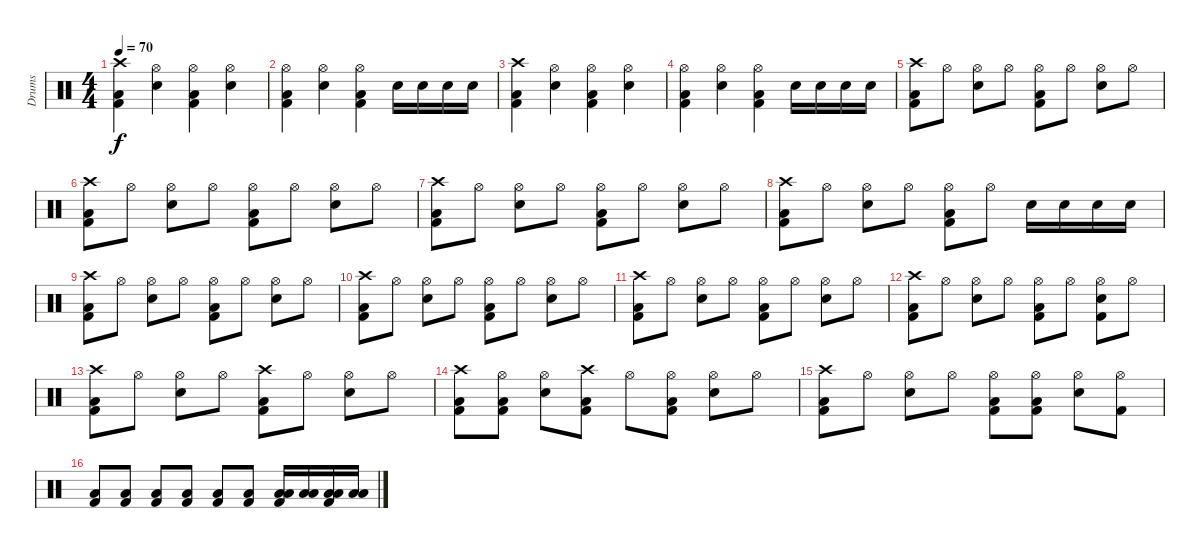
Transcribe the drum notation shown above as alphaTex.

\track ("Drums" "Drums") {instrument percussion}
\staff {score}
\articulation defaults
\ts (4 4)
\tempo 70
\clef neutral
\ks c
("Crash high (hit)" "Low Floor Tom (hit)" "Kick (hit) 2").4{dy f} ("Hi-Hat (open)" "Snare (hit) 2").4 ("Hi-Hat (open)" "Low Floor Tom (hit)" "Kick (hit) 2").4 ("Hi-Hat (open)" "Snare (hit) 2").4 |
("Hi-Hat (open)" "Low Floor Tom (hit)" "Kick (hit) 2").4 ("Hi-Hat (open)" "Snare (hit) 2").4 ("Hi-Hat (open)" "Low Floor Tom (hit)" "Kick (hit) 2").4 "Snare (hit) 2".16 "Snare (hit) 2".16 "Snare (hit) 2".16 "Snare (hit) 2".16 |
("Crash high (hit)" "Low Floor Tom (hit)" "Kick (hit) 2").4 ("Hi-Hat (open)" "Snare (hit) 2").4 ("Hi-Hat (open)" "Low Floor Tom (hit)" "Kick (hit) 2").4 ("Hi-Hat (open)" "Snare (hit) 2").4 |
("Hi-Hat (open)" "Low Floor Tom (hit)" "Kick (hit) 2").4 ("Hi-Hat (open)" "Snare (hit) 2").4 ("Hi-Hat (open)" "Low Floor Tom (hit)" "Kick (hit) 2").4 "Snare (hit) 2".16 "Snare (hit) 2".16 "Snare (hit) 2".16 "Snare (hit) 2".16 |
("Crash high (hit)" "Low Floor Tom (hit)" "Kick (hit) 2").8 "Hi-Hat (open)".8 ("Hi-Hat (open)" "Snare (hit) 2").8 "Hi-Hat (open)".8 ("Hi-Hat (open)" "Low Floor Tom (hit)" "Kick (hit) 2").8 "Hi-Hat (open)".8 ("Hi-Hat (open)" "Snare (hit) 2").8 "Hi-Hat (open)".8 |
("Crash high (hit)" "Low Floor Tom (hit)" "Kick (hit) 2").8 "Hi-Hat (open)".8 ("Hi-Hat (open)" "Snare (hit) 2").8 "Hi-Hat (open)".8 ("Hi-Hat (open)" "Low Floor Tom (hit)" "Kick (hit) 2").8 "Hi-Hat (open)".8 ("Hi-Hat (open)" "Snare (hit) 2").8 "Hi-Hat (open)".8 |
("Crash high (hit)" "Low Floor Tom (hit)" "Kick (hit) 2").8 "Hi-Hat (open)".8 ("Hi-Hat (open)" "Snare (hit) 2").8 "Hi-Hat (open)".8 ("Hi-Hat (open)" "Low Floor Tom (hit)" "Kick (hit) 2").8 "Hi-Hat (open)".8 ("Hi-Hat (open)" "Snare (hit) 2").8 "Hi-Hat (open)".8 |
("Crash high (hit)" "Low Floor Tom (hit)" "Kick (hit) 2").8 "Hi-Hat (open)".8 ("Hi-Hat (open)" "Snare (hit) 2").8 "Hi-Hat (open)".8 ("Hi-Hat (open)" "Low Floor Tom (hit)" "Kick (hit) 2").8 "Hi-Hat (open)".8 "Snare (hit) 2".16 "Snare (hit) 2".16 "Snare (hit) 2".16 "Snare (hit) 2".16 |
("Crash high (hit)" "Low Floor Tom (hit)" "Kick (hit) 2").8 "Hi-Hat (open)".8 ("Hi-Hat (open)" "Snare (hit) 2").8 "Hi-Hat (open)".8 ("Hi-Hat (open)" "Low Floor Tom (hit)" "Kick (hit) 2").8 "Hi-Hat (open)".8 ("Hi-Hat (open)" "Snare (hit) 2").8 "Hi-Hat (open)".8 |
("Crash high (hit)" "Low Floor Tom (hit)" "Kick (hit) 2").8 "Hi-Hat (open)".8 ("Hi-Hat (open)" "Snare (hit) 2").8 "Hi-Hat (open)".8 ("Hi-Hat (open)" "Low Floor Tom (hit)" "Kick (hit) 2").8 "Hi-Hat (open)".8 ("Hi-Hat (open)" "Snare (hit) 2").8 "Hi-Hat (open)".8 |
("Crash high (hit)" "Low Floor Tom (hit)" "Kick (hit) 2").8 "Hi-Hat (open)".8 ("Hi-Hat (open)" "Snare (hit) 2").8 "Hi-Hat (open)".8 ("Hi-Hat (open)" "Low Floor Tom (hit)" "Kick (hit) 2").8 "Hi-Hat (open)".8 ("Hi-Hat (open)" "Snare (hit) 2").8 "Hi-Hat (open)".8 |
("Crash high (hit)" "Low Floor Tom (hit)" "Kick (hit) 2").8 "Hi-Hat (open)".8 ("Hi-Hat (open)" "Snare (hit) 2").8 "Hi-Hat (open)".8 ("Hi-Hat (open)" "Low Floor Tom (hit)" "Kick (hit) 2").8 "Hi-Hat (open)".8 ("Hi-Hat (open)" "Snare (hit) 2" "Kick (hit) 2").8 "Hi-Hat (open)".8 |
("Crash high (hit)" "Low Floor Tom (hit)" "Kick (hit) 2").8 "Hi-Hat (open)".8 ("Hi-Hat (open)" "Snare (hit) 2").8 "Hi-Hat (open)".8 ("Crash high (hit)" "Low Floor Tom (hit)" "Kick (hit) 2").8 "Hi-Hat (open)".8 ("Hi-Hat (open)" "Snare (hit) 2").8 "Hi-Hat (open)".8 |
("Crash high (hit)" "Low Floor Tom (hit)" "Kick (hit) 2").8 ("Hi-Hat (open)" "Low Floor Tom (hit)" "Kick (hit) 2").8 ("Hi-Hat (open)" "Snare (hit) 2").8 ("Crash high (hit)" "Low Floor Tom (hit)" "Kick (hit) 2").8 "Hi-Hat (open)".8 ("Hi-Hat (open)" "Low Floor Tom (hit)" "Kick (hit) 2").8 ("Hi-Hat (open)" "Snare (hit) 2").8 "Hi-Hat (open)".8 |
("Crash high (hit)" "Low Floor Tom (hit)" "Kick (hit) 2").8 "Hi-Hat (open)".8 ("Hi-Hat (open)" "Snare (hit) 2").8 "Hi-Hat (open)".8 ("Hi-Hat (open)" "Low Floor Tom (hit)" "Kick (hit) 2").8 ("Hi-Hat (open)" "Low Floor Tom (hit)" "Kick (hit) 2").8 ("Hi-Hat (open)" "Snare (hit) 2").8 ("Hi-Hat (open)" "Kick (hit) 2").8 |
("Low Floor Tom (hit)" "Kick (hit) 2").8 ("Low Floor Tom (hit)" "Kick (hit) 2").8 ("Low Floor Tom (hit)" "Kick (hit) 2").8 ("Low Floor Tom (hit)" "Kick (hit) 2").8 ("Low Floor Tom (hit)" "Kick (hit) 2").8 ("Low Floor Tom (hit)" "Kick (hit) 2").8 ("Low Floor Tom (hit)" "Low Tom (hit)" "Kick (hit) 2").16 ("Low Floor Tom (hit)" "Low Tom (hit)").16 ("Low Floor Tom (hit)" "Low Tom (hit)" "Kick (hit) 2").16 ("Low Floor Tom (hit)" "Low Tom (hit)").16
